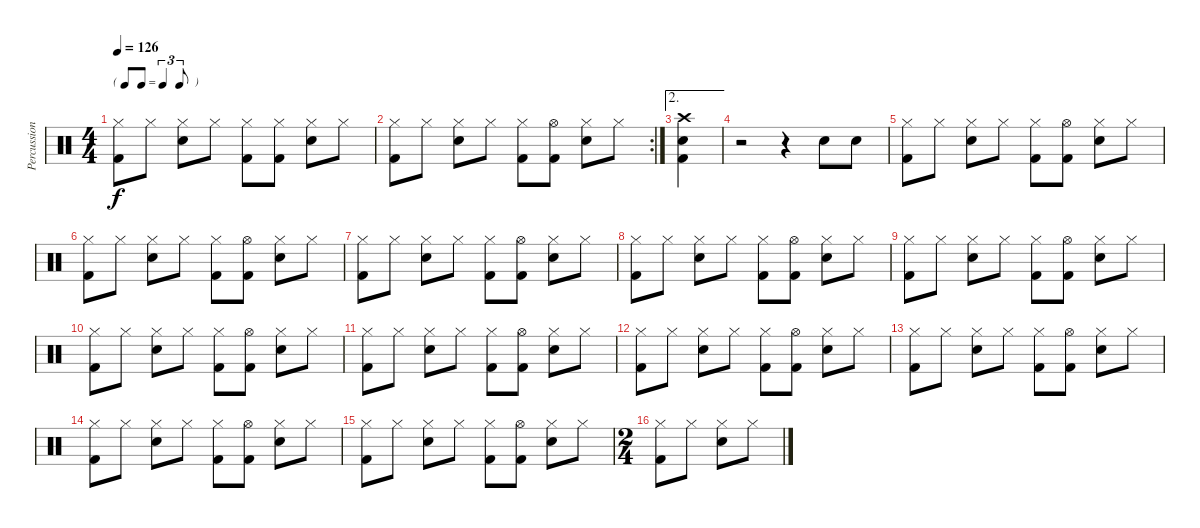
\track ("Percussion" "Percussion") {instrument percussion}
\staff {score}
\articulation defaults
\ts (4 4)
\tf triplet8th
\tempo 126
\clef neutral
\ks c
("Hi-Hat (closed)" "Kick (hit) 2").8{dy f} "Hi-Hat (closed)".8 ("Hi-Hat (closed)" "Electric Snare (hit)").8 "Hi-Hat (closed)".8 ("Hi-Hat (closed)" "Kick (hit) 2").8 ("Hi-Hat (closed)" "Kick (hit) 2").8 ("Hi-Hat (closed)" "Electric Snare (hit)").8 "Hi-Hat (closed)".8 |
\rc 2
("Hi-Hat (closed)" "Kick (hit) 2").8 "Hi-Hat (closed)".8 ("Hi-Hat (closed)" "Electric Snare (hit)").8 "Hi-Hat (closed)".8 ("Hi-Hat (closed)" "Kick (hit) 2").8 ("Hi-Hat (open)" "Kick (hit) 2").8 ("Hi-Hat (closed)" "Electric Snare (hit)").8 "Hi-Hat (closed)".8 |
\ae 2
("Crash high (hit)" "Electric Snare (hit)" "Kick (hit) 2").4 |
r.2 r.4 "Electric Snare (hit)".8 "Electric Snare (hit)".8 |
("Hi-Hat (closed)" "Kick (hit) 2").8 "Hi-Hat (closed)".8 ("Hi-Hat (closed)" "Electric Snare (hit)").8 "Hi-Hat (closed)".8 ("Hi-Hat (closed)" "Kick (hit) 2").8 ("Hi-Hat (open)" "Kick (hit) 2").8 ("Hi-Hat (closed)" "Electric Snare (hit)").8 "Hi-Hat (closed)".8 |
("Hi-Hat (closed)" "Kick (hit) 2").8 "Hi-Hat (closed)".8 ("Hi-Hat (closed)" "Electric Snare (hit)").8 "Hi-Hat (closed)".8 ("Hi-Hat (closed)" "Kick (hit) 2").8 ("Hi-Hat (open)" "Kick (hit) 2").8 ("Hi-Hat (closed)" "Electric Snare (hit)").8 "Hi-Hat (closed)".8 |
("Hi-Hat (closed)" "Kick (hit) 2").8 "Hi-Hat (closed)".8 ("Hi-Hat (closed)" "Electric Snare (hit)").8 "Hi-Hat (closed)".8 ("Hi-Hat (closed)" "Kick (hit) 2").8 ("Hi-Hat (open)" "Kick (hit) 2").8 ("Hi-Hat (closed)" "Electric Snare (hit)").8 "Hi-Hat (closed)".8 |
("Hi-Hat (closed)" "Kick (hit) 2").8 "Hi-Hat (closed)".8 ("Hi-Hat (closed)" "Electric Snare (hit)").8 "Hi-Hat (closed)".8 ("Hi-Hat (closed)" "Kick (hit) 2").8 ("Hi-Hat (open)" "Kick (hit) 2").8 ("Hi-Hat (closed)" "Electric Snare (hit)").8 "Hi-Hat (closed)".8 |
("Hi-Hat (closed)" "Kick (hit) 2").8 "Hi-Hat (closed)".8 ("Hi-Hat (closed)" "Electric Snare (hit)").8 "Hi-Hat (closed)".8 ("Hi-Hat (closed)" "Kick (hit) 2").8 ("Hi-Hat (open)" "Kick (hit) 2").8 ("Hi-Hat (closed)" "Electric Snare (hit)").8 "Hi-Hat (closed)".8 |
("Hi-Hat (closed)" "Kick (hit) 2").8 "Hi-Hat (closed)".8 ("Hi-Hat (closed)" "Electric Snare (hit)").8 "Hi-Hat (closed)".8 ("Hi-Hat (closed)" "Kick (hit) 2").8 ("Hi-Hat (open)" "Kick (hit) 2").8 ("Hi-Hat (closed)" "Electric Snare (hit)").8 "Hi-Hat (closed)".8 |
("Hi-Hat (closed)" "Kick (hit) 2").8 "Hi-Hat (closed)".8 ("Hi-Hat (closed)" "Electric Snare (hit)").8 "Hi-Hat (closed)".8 ("Hi-Hat (closed)" "Kick (hit) 2").8 ("Hi-Hat (open)" "Kick (hit) 2").8 ("Hi-Hat (closed)" "Electric Snare (hit)").8 "Hi-Hat (closed)".8 |
("Hi-Hat (closed)" "Kick (hit) 2").8 "Hi-Hat (closed)".8 ("Hi-Hat (closed)" "Electric Snare (hit)").8 "Hi-Hat (closed)".8 ("Hi-Hat (closed)" "Kick (hit) 2").8 ("Hi-Hat (open)" "Kick (hit) 2").8 ("Hi-Hat (closed)" "Electric Snare (hit)").8 "Hi-Hat (closed)".8 |
("Hi-Hat (closed)" "Kick (hit) 2").8 "Hi-Hat (closed)".8 ("Hi-Hat (closed)" "Electric Snare (hit)").8 "Hi-Hat (closed)".8 ("Hi-Hat (closed)" "Kick (hit) 2").8 ("Hi-Hat (open)" "Kick (hit) 2").8 ("Hi-Hat (closed)" "Electric Snare (hit)").8 "Hi-Hat (closed)".8 |
("Hi-Hat (closed)" "Kick (hit) 2").8 "Hi-Hat (closed)".8 ("Hi-Hat (closed)" "Electric Snare (hit)").8 "Hi-Hat (closed)".8 ("Hi-Hat (closed)" "Kick (hit) 2").8 ("Hi-Hat (open)" "Kick (hit) 2").8 ("Hi-Hat (closed)" "Electric Snare (hit)").8 "Hi-Hat (closed)".8 |
("Hi-Hat (closed)" "Kick (hit) 2").8 "Hi-Hat (closed)".8 ("Hi-Hat (closed)" "Electric Snare (hit)").8 "Hi-Hat (closed)".8 ("Hi-Hat (closed)" "Kick (hit) 2").8 ("Hi-Hat (open)" "Kick (hit) 2").8 ("Hi-Hat (closed)" "Electric Snare (hit)").8 "Hi-Hat (closed)".8 |
\ts (2 4)
("Hi-Hat (closed)" "Kick (hit) 2").8 "Hi-Hat (closed)".8 ("Hi-Hat (closed)" "Electric Snare (hit)").8 "Hi-Hat (closed)".8
